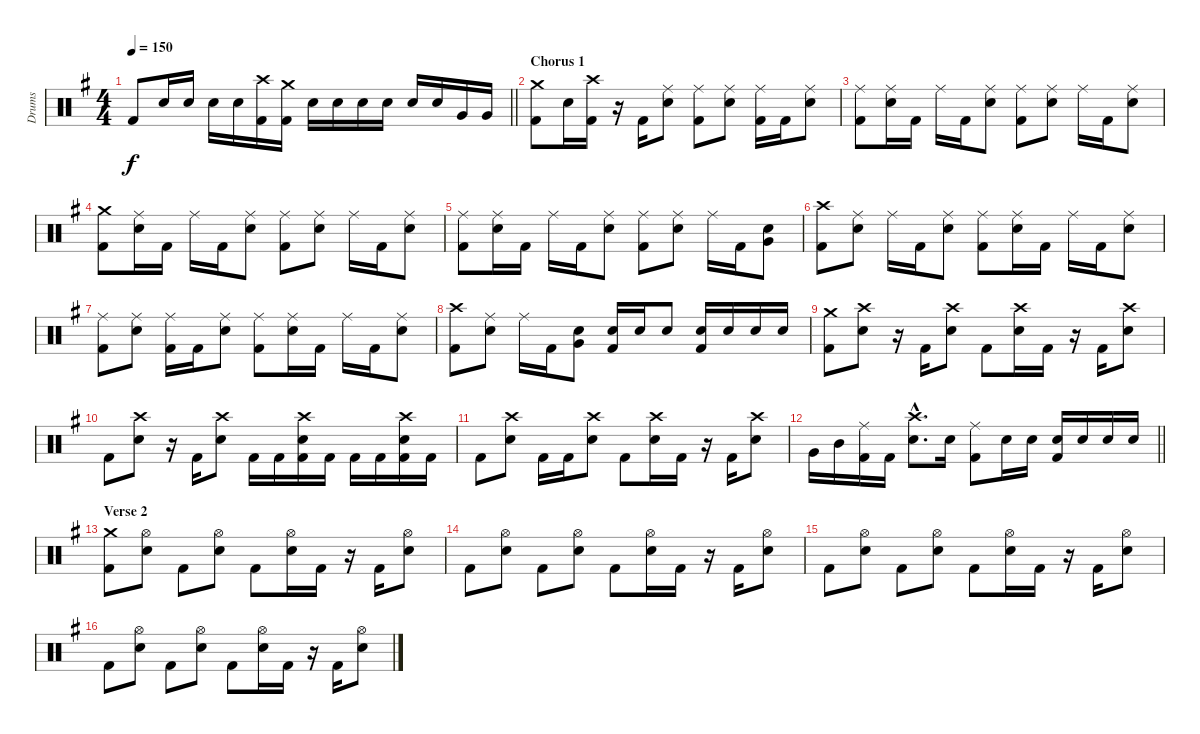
\track ("Drums" "Drums") {instrument percussion}
\staff {score}
\articulation defaults
\ts (4 4)
\tempo 150
\clef neutral
\barLineRight lightlight
\ks eminor "Kick (hit) 2".8{dy f} "Electric Snare (hit)".16 "Electric Snare (hit)".16 "Electric Snare (hit)".16 "Electric Snare (hit)".16
("Crash high (hit)" "Kick (hit) 2").16 ("Crash medium (hit)" "Kick (hit) 2").16 "Electric Snare (hit)".16 "Electric Snare (hit)".16 "Electric Snare (hit)".16 "Electric Snare (hit)".16 "Electric Snare (hit)".16 "Electric Snare (hit)".16 "Very Low Tom (hit)".16 "Very Low Tom (hit)".16 |
\section ("" "Chorus 1")
("Crash medium (hit)" "Kick (hit) 2").8 "Electric Snare (hit)".16 ("Crash high (hit)" "Kick (hit) 2").16 r.16 "Kick (hit) 2".16 ("Ride (middle)" "Electric Snare (hit)").8 ("Ride (middle)" "Kick (hit) 2").8 ("Ride (middle)" "Electric Snare (hit)").8 ("Ride (middle)" "Kick (hit) 2").16 "Kick (hit) 2".16 ("Ride (middle)" "Electric Snare (hit)").8 |
("Ride (middle)" "Kick (hit) 2").8 ("Ride (middle)" "Electric Snare (hit)").16 "Kick (hit) 2".16 "Ride (middle)".16 "Kick (hit) 2".16 ("Ride (middle)" "Electric Snare (hit)").8 ("Ride (middle)" "Kick (hit) 2").8 ("Ride (middle)" "Electric Snare (hit)").8 "Ride (middle)".16 "Kick (hit) 2".16 ("Ride (middle)" "Electric Snare (hit)").8 |
("Crash medium (hit)" "Kick (hit) 2").8 ("Ride (middle)" "Electric Snare (hit)").16 "Kick (hit) 2".16 "Ride (middle)".16 "Kick (hit) 2".16 ("Ride (middle)" "Electric Snare (hit)").8 ("Ride (middle)" "Kick (hit) 2").8 ("Ride (middle)" "Electric Snare (hit)").8 "Ride (middle)".16 "Kick (hit) 2".16 ("Ride (middle)" "Electric Snare (hit)").8 |
("Ride (middle)" "Kick (hit) 2").8 ("Ride (middle)" "Electric Snare (hit)").16 "Kick (hit) 2".16 "Ride (middle)".16 "Kick (hit) 2".16 ("Ride (middle)" "Electric Snare (hit)").8 ("Ride (middle)" "Kick (hit) 2").8 ("Ride (middle)" "Electric Snare (hit)").8 "Ride (middle)".16 "Kick (hit) 2".16 ("Electric Snare (hit)" "Very Low Tom (hit)").8 |
("Crash high (hit)" "Kick (hit) 2").8 ("Ride (middle)" "Electric Snare (hit)").8 "Ride (middle)".16 "Kick (hit) 2".16 ("Ride (middle)" "Electric Snare (hit)").8 ("Ride (middle)" "Kick (hit) 2").8 ("Ride (middle)" "Electric Snare (hit)").16 "Kick (hit) 2".16 "Ride (middle)".16 "Kick (hit) 2".16 ("Ride (middle)" "Electric Snare (hit)").8 |
("Ride (middle)" "Kick (hit) 2").8 ("Ride (middle)" "Electric Snare (hit)").8 ("Ride (middle)" "Kick (hit) 2").16 "Kick (hit) 2".16 ("Ride (middle)" "Electric Snare (hit)").8 ("Ride (middle)" "Kick (hit) 2").8 ("Ride (middle)" "Electric Snare (hit)").16 "Kick (hit) 2".16 "Ride (middle)".16 "Kick (hit) 2".16 ("Ride (middle)" "Electric Snare (hit)").8 |
("Crash high (hit)" "Kick (hit) 2").8 ("Ride (middle)" "Electric Snare (hit)").8 "Ride (middle)".16 "Kick (hit) 2".16 ("Electric Snare (hit)" "Very Low Tom (hit)").8 ("Electric Snare (hit)" "Kick (hit) 2").16 "Electric Snare (hit)".16 "Electric Snare (hit)".8 ("Electric Snare (hit)" "Kick (hit) 2").16 "Electric Snare (hit)".16 "Electric Snare (hit)".16 "Electric Snare (hit)".16 |
("Crash medium (hit)" "Kick (hit) 2").8 ("Crash high (hit)" "Electric Snare (hit)").8 r.16 "Kick (hit) 2".16 ("Crash high (hit)" "Electric Snare (hit)").8 "Kick (hit) 2".8 ("Crash high (hit)" "Electric Snare (hit)").16 "Kick (hit) 2".16 r.16 "Kick (hit) 2".16 ("Crash high (hit)" "Electric Snare (hit)").8 |
"Kick (hit) 2".8 ("Crash high (hit)" "Electric Snare (hit)").8 r.16 "Kick (hit) 2".16 ("Crash high (hit)" "Electric Snare (hit)").8 "Kick (hit) 2".16 "Kick (hit) 2".16 ("Crash high (hit)" "Electric Snare (hit)" "Kick (hit) 2").16 "Kick (hit) 2".16 "Kick (hit) 2".16 "Kick (hit) 2".16 ("Crash high (hit)" "Electric Snare (hit)" "Kick (hit) 2").16 "Kick (hit) 2".16 |
"Kick (hit) 2".8 ("Crash high (hit)" "Electric Snare (hit)").8 "Kick (hit) 2".16 "Kick (hit) 2".16 ("Crash high (hit)" "Electric Snare (hit)").8 "Kick (hit) 2".8 ("Crash high (hit)" "Electric Snare (hit)").16 "Kick (hit) 2".16 r.16 "Kick (hit) 2".16 ("Crash high (hit)" "Electric Snare (hit)").8 |
\barLineRight lightlight "Very Low Tom (hit)".16 "Mid Tom (hit)".16
("Ride (middle)" "Kick (hit) 2").16 "Kick (hit) 2".16 ("Crash high (hit)"{hac} "Electric Snare (hit)"{hac}).8{d} "Electric Snare (hit)".16 ("Ride (middle)" "Kick (hit) 2").8 "Electric Snare (hit)".16 "Electric Snare (hit)".16 ("Electric Snare (hit)" "Kick (hit) 2").16 "Electric Snare (hit)".16 "Electric Snare (hit)".16 "Electric Snare (hit)".16 |
\section ("" "Verse 2")
("Crash medium (hit)" "Kick (hit) 2").8 ("Hi-Hat (open)" "Electric Snare (hit)").8 "Kick (hit) 2".8 ("Hi-Hat (open)" "Electric Snare (hit)").8 "Kick (hit) 2".8 ("Hi-Hat (open)" "Electric Snare (hit)").16 "Kick (hit) 2".16 r.16 "Kick (hit) 2".16 ("Hi-Hat (open)" "Electric Snare (hit)").8 |
"Kick (hit) 2".8 ("Hi-Hat (open)" "Electric Snare (hit)").8 "Kick (hit) 2".8 ("Hi-Hat (open)" "Electric Snare (hit)").8 "Kick (hit) 2".8 ("Hi-Hat (open)" "Electric Snare (hit)").16 "Kick (hit) 2".16 r.16 "Kick (hit) 2".16 ("Hi-Hat (open)" "Electric Snare (hit)").8 |
"Kick (hit) 2".8 ("Hi-Hat (open)" "Electric Snare (hit)").8 "Kick (hit) 2".8 ("Hi-Hat (open)" "Electric Snare (hit)").8 "Kick (hit) 2".8 ("Hi-Hat (open)" "Electric Snare (hit)").16 "Kick (hit) 2".16 r.16 "Kick (hit) 2".16 ("Hi-Hat (open)" "Electric Snare (hit)").8 |
"Kick (hit) 2".8 ("Hi-Hat (open)" "Electric Snare (hit)").8 "Kick (hit) 2".8 ("Hi-Hat (open)" "Electric Snare (hit)").8 "Kick (hit) 2".8 ("Hi-Hat (open)" "Electric Snare (hit)").16 "Kick (hit) 2".16 r.16 "Kick (hit) 2".16 ("Hi-Hat (open)" "Electric Snare (hit)").8
